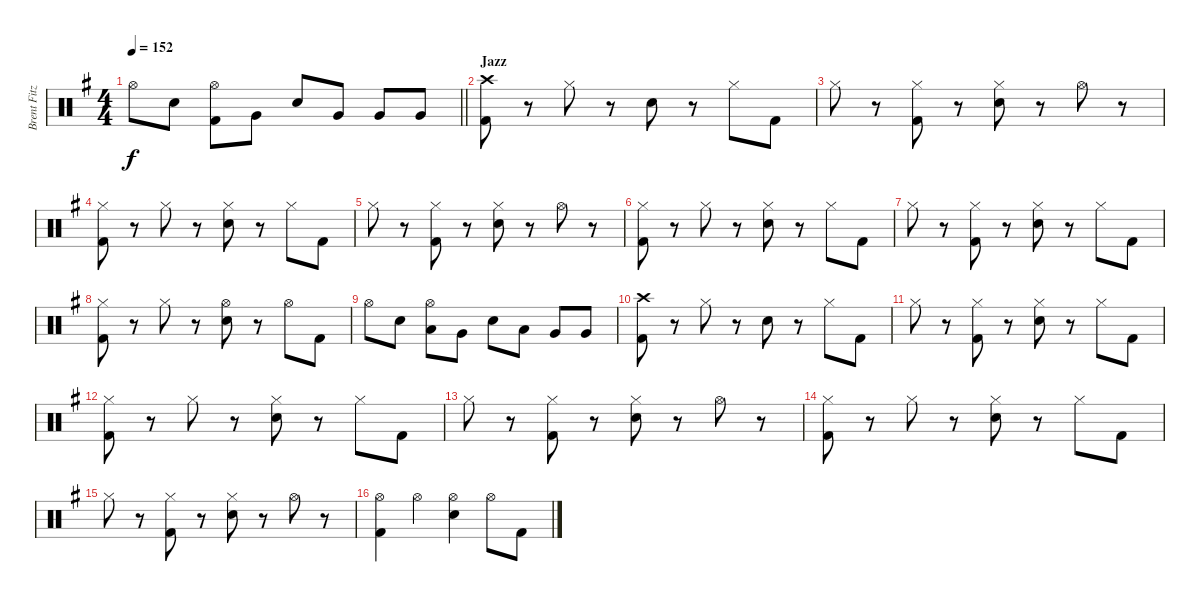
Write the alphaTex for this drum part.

\track ("Brent Fitz" "Brent Fitz") {instrument percussion}
\staff {score}
\articulation defaults
\ts (4 4)
\tempo 152
\clef neutral
\barLineRight lightlight
\ks eminor "Hi-Hat (open)".8{dy f} "Snare (hit) 2".8
("Hi-Hat (open)" "Kick (hit) 2").8 "Very Low Tom (hit)".8 "Snare (hit) 2".8 "Very Low Tom (hit)".8 "Very Low Tom (hit)".8 "Very Low Tom (hit)".8 |
\section ("" "Jazz")
("Crash high (hit)" "Kick (hit) 2").8 r.8 "Hi-Hat (closed)".8 r.8 "Snare (hit) 2".8 r.8 "Hi-Hat (closed)".8 "Kick (hit) 2".8 |
"Hi-Hat (closed)".8 r.8 ("Hi-Hat (closed)" "Kick (hit) 2").8 r.8 ("Hi-Hat (closed)" "Snare (hit) 2").8 r.8 "Hi-Hat (open)".8 r.8 |
("Hi-Hat (closed)" "Kick (hit) 2").8 r.8 "Hi-Hat (closed)".8 r.8 ("Hi-Hat (closed)" "Snare (hit) 2").8 r.8 "Hi-Hat (closed)".8 "Kick (hit) 2".8 |
"Hi-Hat (closed)".8 r.8 ("Hi-Hat (closed)" "Kick (hit) 2").8 r.8 ("Hi-Hat (closed)" "Snare (hit) 2").8 r.8 "Hi-Hat (open)".8 r.8 |
("Hi-Hat (closed)" "Kick (hit) 2").8 r.8 "Hi-Hat (closed)".8 r.8 ("Hi-Hat (closed)" "Snare (hit) 2").8 r.8 "Hi-Hat (closed)".8 "Kick (hit) 2".8 |
"Hi-Hat (closed)".8 r.8 ("Hi-Hat (closed)" "Kick (hit) 2").8 r.8 ("Hi-Hat (closed)" "Snare (hit) 2").8 r.8 "Hi-Hat (closed)".8 "Kick (hit) 2".8 |
("Hi-Hat (closed)" "Kick (hit) 2").8 r.8 "Hi-Hat (closed)".8 r.8 ("Hi-Hat (open)" "Snare (hit) 2").8 r.8 "Hi-Hat (open)".8 "Kick (hit) 2".8 |
"Hi-Hat (open)".8 "Snare (hit) 2".8 ("Hi-Hat (open)" "Low Tom (hit)").8 "Very Low Tom (hit)".8 "Snare (hit) 2".8 "Low Tom (hit)".8 "Very Low Tom (hit)".8 "Very Low Tom (hit)".8 |
("Crash high (hit)" "Kick (hit) 2").8 r.8 "Hi-Hat (closed)".8 r.8 "Snare (hit) 2".8 r.8 "Hi-Hat (closed)".8 "Kick (hit) 2".8 |
"Hi-Hat (closed)".8 r.8 ("Hi-Hat (closed)" "Kick (hit) 2").8 r.8 ("Hi-Hat (closed)" "Snare (hit) 2").8 r.8 "Hi-Hat (closed)".8 "Kick (hit) 2".8 |
("Hi-Hat (closed)" "Kick (hit) 2").8 r.8 "Hi-Hat (closed)".8 r.8 ("Hi-Hat (closed)" "Snare (hit) 2").8 r.8 "Hi-Hat (closed)".8 "Kick (hit) 2".8 |
"Hi-Hat (closed)".8 r.8 ("Hi-Hat (closed)" "Kick (hit) 2").8 r.8 ("Hi-Hat (closed)" "Snare (hit) 2").8 r.8 "Hi-Hat (open)".8 r.8 |
("Hi-Hat (closed)" "Kick (hit) 2").8 r.8 "Hi-Hat (closed)".8 r.8 ("Hi-Hat (closed)" "Snare (hit) 2").8 r.8 "Hi-Hat (closed)".8 "Kick (hit) 2".8 |
"Hi-Hat (closed)".8 r.8 ("Hi-Hat (closed)" "Kick (hit) 2").8 r.8 ("Hi-Hat (closed)" "Snare (hit) 2").8 r.8 "Hi-Hat (open)".8 r.8 |
("Hi-Hat (open)" "Kick (hit) 2").4 "Hi-Hat (open)".4 ("Hi-Hat (open)" "Snare (hit) 2").4 "Hi-Hat (open)".8 "Kick (hit) 2".8
